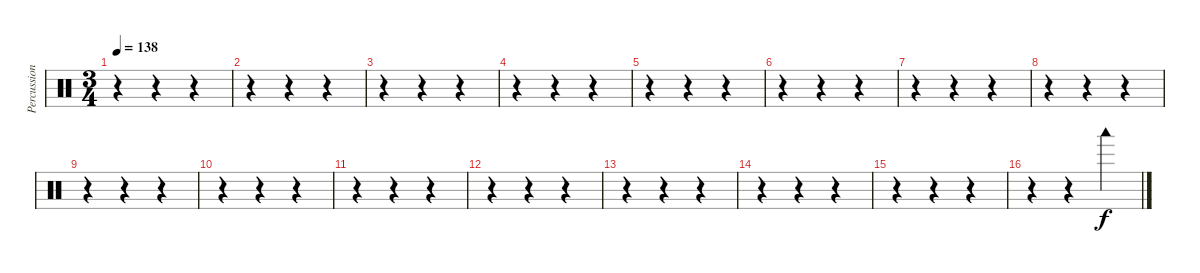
\track ("Percussions" "Percussion") {instrument percussion}
\staff {score}
\articulation defaults
\ts (3 4)
\tempo 138
\clef neutral
\ks c
r.4{dy f} r.4 r.4 |
r.4 r.4 r.4 |
r.4 r.4 r.4 |
r.4 r.4 r.4 |
r.4 r.4 r.4 |
r.4 r.4 r.4 |
r.4 r.4 r.4 |
r.4 r.4 r.4 |
r.4 r.4 r.4 |
r.4 r.4 r.4 |
r.4 r.4 r.4 |
r.4 r.4 r.4 |
r.4 r.4 r.4 |
r.4 r.4 r.4 |
r.4 r.4 r.4 |
r.4 r.4 "Woodblock low (hit)".4
